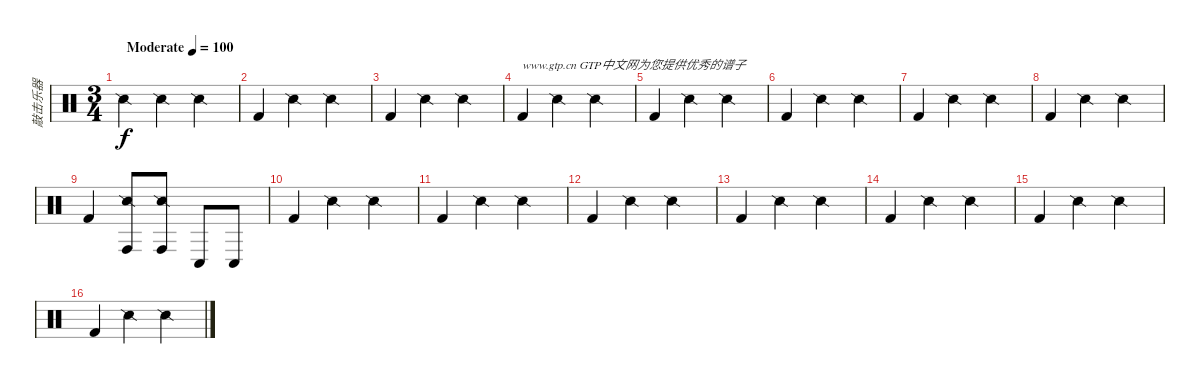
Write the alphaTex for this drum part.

\track ("敲击乐器" "敲击乐器") {instrument percussion}
\staff {score}
\articulation defaults
\ts (3 4)
\tempo (100 "Moderate")
\clef neutral
\ks c "Snare (side stick) 2".4{dy f} "Snare (side stick) 2".4 "Snare (side stick) 2".4
|
"Kick (hit) 2".4 "Snare (side stick) 2".4 "Snare (side stick) 2".4 |
"Kick (hit) 2".4 "Snare (side stick) 2".4 "Snare (side stick) 2".4 |
"Kick (hit) 2".4{txt "www.gtp.cn GTP中文网为您提供优秀的谱子"} "Snare (side stick) 2".4 "Snare (side stick) 2".4 |
"Kick (hit) 2".4 "Snare (side stick) 2".4 "Snare (side stick) 2".4 |
"Kick (hit) 2".4 "Snare (side stick) 2".4 "Snare (side stick) 2".4 |
"Kick (hit) 2".4 "Snare (side stick) 2".4 "Snare (side stick) 2".4 |
"Kick (hit) 2".4 "Snare (side stick) 2".4 "Snare (side stick) 2".4 |
"Kick (hit) 2".4 ("Snare (side stick) 2" "Conga high (hit)").8 ("Snare (side stick) 2" "Conga high (hit)").8 "Conga low (hit)".8 "Conga low (hit)".8 |
"Kick (hit) 2".4 "Snare (side stick) 2".4 "Snare (side stick) 2".4 |
"Kick (hit) 2".4 "Snare (side stick) 2".4 "Snare (side stick) 2".4 |
"Kick (hit) 2".4 "Snare (side stick) 2".4 "Snare (side stick) 2".4 |
"Kick (hit) 2".4 "Snare (side stick) 2".4 "Snare (side stick) 2".4 |
"Kick (hit) 2".4 "Snare (side stick) 2".4 "Snare (side stick) 2".4 |
"Kick (hit) 2".4 "Snare (side stick) 2".4 "Snare (side stick) 2".4 |
"Kick (hit) 2".4 "Snare (side stick) 2".4 "Snare (side stick) 2".4
